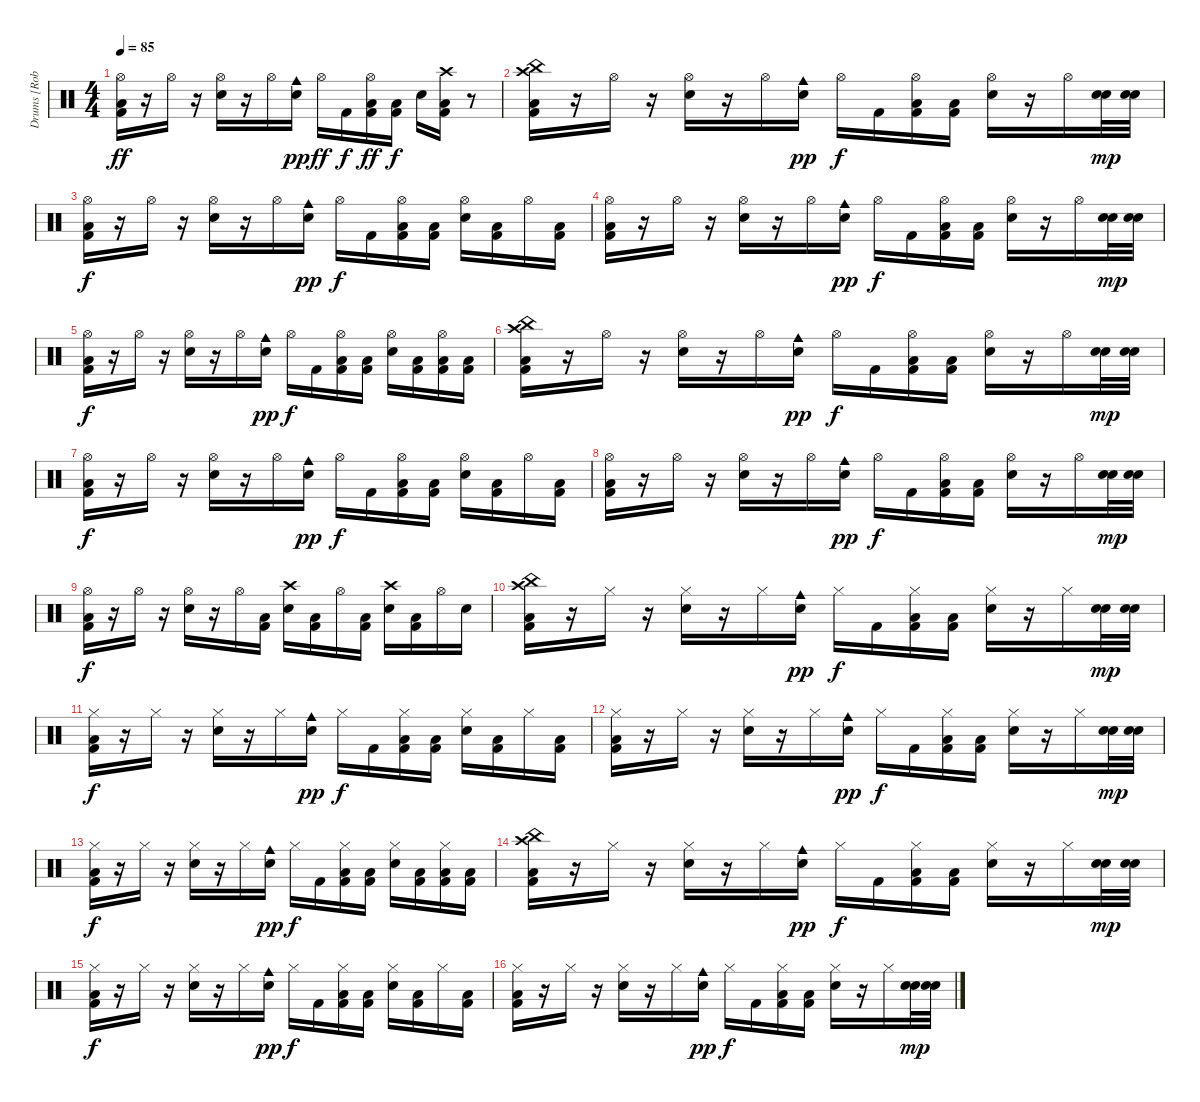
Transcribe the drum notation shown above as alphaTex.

\track ("Drums [Rob Bourdon]" "Drums [Rob") {instrument percussion}
\staff {score}
\articulation defaults
\ts (4 4)
\tempo 85
\clef neutral
\ks c
("Hi-Hat (open)" "Low Floor Tom (hit)" "Kick (hit) 2").16{dy ff} r.16 "Hi-Hat (open)".16 r.16 ("Hi-Hat (open)" "Snare (hit) 2").16 r.16 "Hi-Hat (open)".16 ("Snare (hit) 2" "Cowbell medium (hit)").16{dy pp} "Hi-Hat (open)".16{dy ff} "Kick (hit) 2".16{dy f} ("Hi-Hat (open)" "Low Floor Tom (hit)" "Kick (hit) 2").16{dy ff} ("Low Floor Tom (hit)" "Kick (hit) 2").16{dy f} "Snare (hit) 2".16 ("Crash high (hit)" "Low Floor Tom (hit)" "Kick (hit) 2").16 r.8 |
("China (hit)" "Crash high (hit)" "Low Floor Tom (hit)" "Kick (hit) 2").16 r.16 "Hi-Hat (open)".16 r.16 ("Hi-Hat (open)" "Snare (hit) 2").16 r.16 "Hi-Hat (open)".16 ("Snare (hit) 2" "Cowbell medium (hit)").16{dy pp} "Hi-Hat (open)".16{dy f} "Kick (hit) 2".16 ("Hi-Hat (open)" "Low Floor Tom (hit)" "Kick (hit) 2").16 ("Low Floor Tom (hit)" "Kick (hit) 2").16 ("Hi-Hat (open)" "Snare (hit) 2").16 r.16 "Hi-Hat (open)".16 ("Snare (hit) 2" "Snare (hit) 2").32{dy mp} ("Snare (hit) 2" "Snare (hit) 2").32 |
("Hi-Hat (open)" "Low Floor Tom (hit)" "Kick (hit) 2").16{dy f} r.16 "Hi-Hat (open)".16 r.16 ("Hi-Hat (open)" "Snare (hit) 2").16 r.16 "Hi-Hat (open)".16 ("Snare (hit) 2" "Cowbell medium (hit)").16{dy pp} "Hi-Hat (open)".16{dy f} "Kick (hit) 2".16 ("Hi-Hat (open)" "Low Floor Tom (hit)" "Kick (hit) 2").16 ("Low Floor Tom (hit)" "Kick (hit) 2").16 ("Hi-Hat (open)" "Snare (hit) 2").16 ("Low Floor Tom (hit)" "Kick (hit) 2").16 "Hi-Hat (open)".16 ("Low Floor Tom (hit)" "Kick (hit) 2").16 |
("Hi-Hat (open)" "Low Floor Tom (hit)" "Kick (hit) 2").16 r.16 "Hi-Hat (open)".16 r.16 ("Hi-Hat (open)" "Snare (hit) 2").16 r.16 "Hi-Hat (open)".16 ("Snare (hit) 2" "Cowbell medium (hit)").16{dy pp} "Hi-Hat (open)".16{dy f} "Kick (hit) 2".16 ("Hi-Hat (open)" "Low Floor Tom (hit)" "Kick (hit) 2").16 ("Low Floor Tom (hit)" "Kick (hit) 2").16 ("Hi-Hat (open)" "Snare (hit) 2").16 r.16 "Hi-Hat (open)".16 ("Snare (hit) 2" "Snare (hit) 2").32{dy mp} ("Snare (hit) 2" "Snare (hit) 2").32 |
("Hi-Hat (open)" "Low Floor Tom (hit)" "Kick (hit) 2").16{dy f} r.16 "Hi-Hat (open)".16 r.16 ("Hi-Hat (open)" "Snare (hit) 2").16 r.16 "Hi-Hat (open)".16 ("Snare (hit) 2" "Cowbell medium (hit)").16{dy pp} "Hi-Hat (open)".16{dy f} "Kick (hit) 2".16 ("Hi-Hat (open)" "Low Floor Tom (hit)" "Kick (hit) 2").16 ("Low Floor Tom (hit)" "Kick (hit) 2").16 ("Hi-Hat (open)" "Snare (hit) 2").16 ("Low Floor Tom (hit)" "Kick (hit) 2").16 ("Hi-Hat (open)" "Low Floor Tom (hit)" "Kick (hit) 2").16 ("Low Floor Tom (hit)" "Kick (hit) 2").16 |
("China (hit)" "Crash high (hit)" "Low Floor Tom (hit)" "Kick (hit) 2").16 r.16 "Hi-Hat (open)".16 r.16 ("Hi-Hat (open)" "Snare (hit) 2").16 r.16 "Hi-Hat (open)".16 ("Snare (hit) 2" "Cowbell medium (hit)").16{dy pp} "Hi-Hat (open)".16{dy f} "Kick (hit) 2".16 ("Hi-Hat (open)" "Low Floor Tom (hit)" "Kick (hit) 2").16 ("Low Floor Tom (hit)" "Kick (hit) 2").16 ("Hi-Hat (open)" "Snare (hit) 2").16 r.16 "Hi-Hat (open)".16 ("Snare (hit) 2" "Snare (hit) 2").32{dy mp} ("Snare (hit) 2" "Snare (hit) 2").32 |
("Hi-Hat (open)" "Low Floor Tom (hit)" "Kick (hit) 2").16{dy f} r.16 "Hi-Hat (open)".16 r.16 ("Hi-Hat (open)" "Snare (hit) 2").16 r.16 "Hi-Hat (open)".16 ("Snare (hit) 2" "Cowbell medium (hit)").16{dy pp} "Hi-Hat (open)".16{dy f} "Kick (hit) 2".16 ("Hi-Hat (open)" "Low Floor Tom (hit)" "Kick (hit) 2").16 ("Low Floor Tom (hit)" "Kick (hit) 2").16 ("Hi-Hat (open)" "Snare (hit) 2").16 ("Low Floor Tom (hit)" "Kick (hit) 2").16 "Hi-Hat (open)".16 ("Low Floor Tom (hit)" "Kick (hit) 2").16 |
("Hi-Hat (open)" "Low Floor Tom (hit)" "Kick (hit) 2").16 r.16 "Hi-Hat (open)".16 r.16 ("Hi-Hat (open)" "Snare (hit) 2").16 r.16 "Hi-Hat (open)".16 ("Snare (hit) 2" "Cowbell medium (hit)").16{dy pp} "Hi-Hat (open)".16{dy f} "Kick (hit) 2".16 ("Hi-Hat (open)" "Low Floor Tom (hit)" "Kick (hit) 2").16 ("Low Floor Tom (hit)" "Kick (hit) 2").16 ("Hi-Hat (open)" "Snare (hit) 2").16 r.16 "Hi-Hat (open)".16 ("Snare (hit) 2" "Snare (hit) 2").32{dy mp} ("Snare (hit) 2" "Snare (hit) 2").32 |
("Hi-Hat (open)" "Low Floor Tom (hit)" "Kick (hit) 2").16{dy f} r.16 "Hi-Hat (open)".16 r.16 ("Hi-Hat (open)" "Snare (hit) 2").16 r.16 "Hi-Hat (open)".16 ("Low Floor Tom (hit)" "Kick (hit) 2").16 ("Crash high (hit)" "Snare (hit) 2").16 ("Low Floor Tom (hit)" "Kick (hit) 2").16 "Hi-Hat (open)".16 ("Low Floor Tom (hit)" "Kick (hit) 2").16 ("Crash high (hit)" "Snare (hit) 2").16 ("Low Floor Tom (hit)" "Kick (hit) 2").16 "Hi-Hat (open)".16 "Snare (hit) 2".16 |
("China (hit)" "Crash high (hit)" "Low Floor Tom (hit)" "Kick (hit) 2").16 r.16 "Hi-Hat (closed)".16 r.16 ("Hi-Hat (closed)" "Snare (hit) 2").16 r.16 "Hi-Hat (closed)".16 ("Snare (hit) 2" "Cowbell medium (hit)").16{dy pp} "Hi-Hat (closed)".16{dy f} "Kick (hit) 2".16 ("Hi-Hat (closed)" "Low Floor Tom (hit)" "Kick (hit) 2").16 ("Low Floor Tom (hit)" "Kick (hit) 2").16 ("Hi-Hat (closed)" "Snare (hit) 2").16 r.16 "Hi-Hat (closed)".16 ("Snare (hit) 2" "Snare (hit) 2").32{dy mp} ("Snare (hit) 2" "Snare (hit) 2").32 |
("Hi-Hat (closed)" "Low Floor Tom (hit)" "Kick (hit) 2").16{dy f} r.16 "Hi-Hat (closed)".16 r.16 ("Hi-Hat (closed)" "Snare (hit) 2").16 r.16 "Hi-Hat (closed)".16 ("Snare (hit) 2" "Cowbell medium (hit)").16{dy pp} "Hi-Hat (closed)".16{dy f} "Kick (hit) 2".16 ("Hi-Hat (closed)" "Low Floor Tom (hit)" "Kick (hit) 2").16 ("Low Floor Tom (hit)" "Kick (hit) 2").16 ("Hi-Hat (closed)" "Snare (hit) 2").16 ("Low Floor Tom (hit)" "Kick (hit) 2").16 "Hi-Hat (closed)".16 ("Low Floor Tom (hit)" "Kick (hit) 2").16 |
("Hi-Hat (closed)" "Low Floor Tom (hit)" "Kick (hit) 2").16 r.16 "Hi-Hat (closed)".16 r.16 ("Hi-Hat (closed)" "Snare (hit) 2").16 r.16 "Hi-Hat (closed)".16 ("Snare (hit) 2" "Cowbell medium (hit)").16{dy pp} "Hi-Hat (closed)".16{dy f} "Kick (hit) 2".16 ("Hi-Hat (closed)" "Low Floor Tom (hit)" "Kick (hit) 2").16 ("Low Floor Tom (hit)" "Kick (hit) 2").16 ("Hi-Hat (closed)" "Snare (hit) 2").16 r.16 "Hi-Hat (closed)".16 ("Snare (hit) 2" "Snare (hit) 2").32{dy mp} ("Snare (hit) 2" "Snare (hit) 2").32 |
("Hi-Hat (closed)" "Low Floor Tom (hit)" "Kick (hit) 2").16{dy f} r.16 "Hi-Hat (closed)".16 r.16 ("Hi-Hat (closed)" "Snare (hit) 2").16 r.16 "Hi-Hat (closed)".16 ("Snare (hit) 2" "Cowbell medium (hit)").16{dy pp} "Hi-Hat (closed)".16{dy f} "Kick (hit) 2".16 ("Hi-Hat (closed)" "Low Floor Tom (hit)" "Kick (hit) 2").16 ("Low Floor Tom (hit)" "Kick (hit) 2").16 ("Hi-Hat (closed)" "Snare (hit) 2").16 ("Low Floor Tom (hit)" "Kick (hit) 2").16 ("Hi-Hat (closed)" "Low Floor Tom (hit)" "Kick (hit) 2").16 ("Low Floor Tom (hit)" "Kick (hit) 2").16 |
("China (hit)" "Crash high (hit)" "Low Floor Tom (hit)" "Kick (hit) 2").16 r.16 "Hi-Hat (closed)".16 r.16 ("Hi-Hat (closed)" "Snare (hit) 2").16 r.16 "Hi-Hat (closed)".16 ("Snare (hit) 2" "Cowbell medium (hit)").16{dy pp} "Hi-Hat (closed)".16{dy f} "Kick (hit) 2".16 ("Hi-Hat (closed)" "Low Floor Tom (hit)" "Kick (hit) 2").16 ("Low Floor Tom (hit)" "Kick (hit) 2").16 ("Hi-Hat (closed)" "Snare (hit) 2").16 r.16 "Hi-Hat (closed)".16 ("Snare (hit) 2" "Snare (hit) 2").32{dy mp} ("Snare (hit) 2" "Snare (hit) 2").32 |
("Hi-Hat (closed)" "Low Floor Tom (hit)" "Kick (hit) 2").16{dy f} r.16 "Hi-Hat (closed)".16 r.16 ("Hi-Hat (closed)" "Snare (hit) 2").16 r.16 "Hi-Hat (closed)".16 ("Snare (hit) 2" "Cowbell medium (hit)").16{dy pp} "Hi-Hat (closed)".16{dy f} "Kick (hit) 2".16 ("Hi-Hat (closed)" "Low Floor Tom (hit)" "Kick (hit) 2").16 ("Low Floor Tom (hit)" "Kick (hit) 2").16 ("Hi-Hat (closed)" "Snare (hit) 2").16 ("Low Floor Tom (hit)" "Kick (hit) 2").16 "Hi-Hat (closed)".16 ("Low Floor Tom (hit)" "Kick (hit) 2").16 |
("Hi-Hat (closed)" "Low Floor Tom (hit)" "Kick (hit) 2").16 r.16 "Hi-Hat (closed)".16 r.16 ("Hi-Hat (closed)" "Snare (hit) 2").16 r.16 "Hi-Hat (closed)".16 ("Snare (hit) 2" "Cowbell medium (hit)").16{dy pp} "Hi-Hat (closed)".16{dy f} "Kick (hit) 2".16 ("Hi-Hat (closed)" "Low Floor Tom (hit)" "Kick (hit) 2").16 ("Low Floor Tom (hit)" "Kick (hit) 2").16 ("Hi-Hat (closed)" "Snare (hit) 2").16 r.16 "Hi-Hat (closed)".16 ("Snare (hit) 2" "Snare (hit) 2").32{dy mp} ("Snare (hit) 2" "Snare (hit) 2").32
